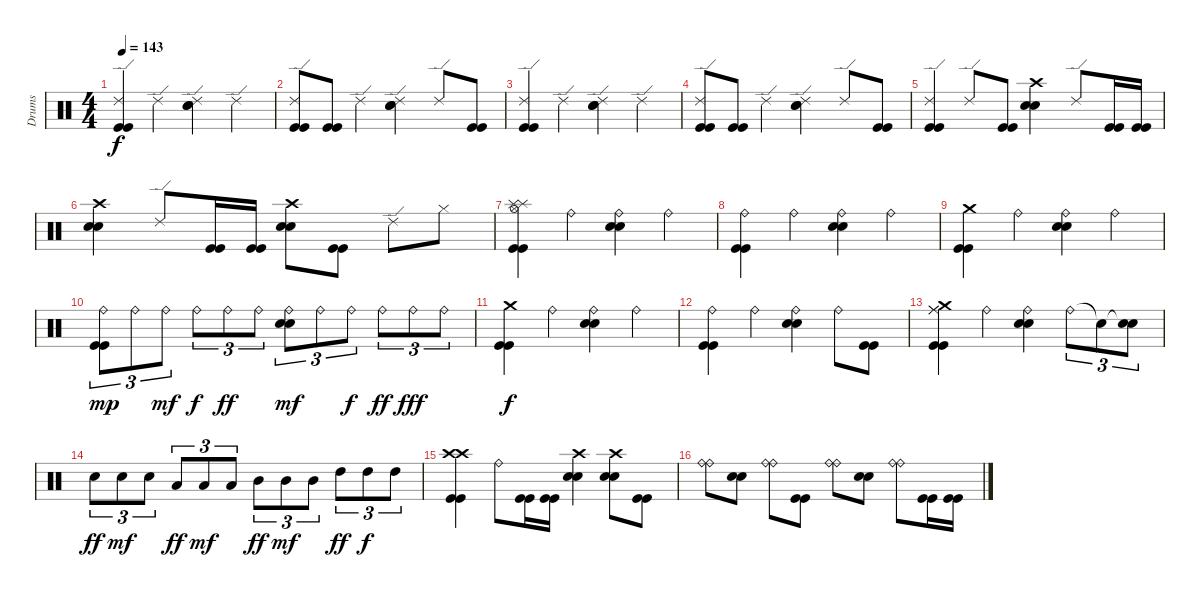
\track ("Drums" "Drums") {instrument percussion}
\staff {score}
\articulation defaults
\ts (4 4)
\tempo 143
\clef neutral
\ks c
("Ride (edge) 2" "Kick (hit)" "Kick (hit)").4{dy f} "Ride (edge) 2".4 ("Ride (edge) 2" "Electric Snare (hit)" "Electric Snare (hit)").4 "Ride (edge) 2".4 |
("Ride (edge) 2" "Kick (hit)" "Kick (hit)").8 ("Kick (hit)" "Kick (hit)").8 "Ride (edge) 2".4 ("Ride (edge) 2" "Electric Snare (hit)" "Electric Snare (hit)").4 "Ride (edge) 2".8 ("Kick (hit)" "Kick (hit)").8 |
("Ride (edge) 2" "Kick (hit)" "Kick (hit)").4 "Ride (edge) 2".4 ("Ride (edge) 2" "Electric Snare (hit)" "Electric Snare (hit)").4 "Ride (edge) 2".4 |
("Ride (edge) 2" "Kick (hit)" "Kick (hit)").8 ("Kick (hit)" "Kick (hit)").8 "Ride (edge) 2".4 ("Ride (edge) 2" "Electric Snare (hit)" "Electric Snare (hit)").4 "Ride (edge) 2".8 ("Kick (hit)" "Kick (hit)").8 |
("Ride (edge) 2" "Kick (hit)" "Kick (hit)").4 "Ride (edge) 2".8 ("Kick (hit)" "Kick (hit)").8 ("Crash high (hit)" "Electric Snare (hit)" "Electric Snare (hit)").4 "Ride (edge) 2".8 ("Kick (hit)" "Kick (hit)").16 ("Kick (hit)" "Kick (hit)").16 |
("Crash high (hit)" "Electric Snare (hit)" "Electric Snare (hit)").4 "Ride (edge) 2".8 ("Kick (hit)" "Kick (hit)").16 ("Kick (hit)" "Kick (hit)").16 ("Crash high (hit)" "Electric Snare (hit)" "Electric Snare (hit)").8 ("Kick (hit)" "Kick (hit)").8 "Ride (edge) 2".8 "Hi-Hat (closed)".8 |
("Splash (hit)" "Splash (hit)" "Hi-Hat (open)" "Kick (hit)" "Kick (hit)").4 "Ride (bell)".4 ("Ride (bell)" "Electric Snare (hit)" "Electric Snare (hit)").4 "Ride (bell)".4 |
("Ride (bell)" "Kick (hit)" "Kick (hit)").4 "Ride (bell)".4 ("Ride (bell)" "Electric Snare (hit)" "Electric Snare (hit)").4 "Ride (bell)".4 |
("Crash medium (hit)" "Kick (hit)" "Kick (hit)").4 "Ride (bell)".4 ("Ride (bell)" "Electric Snare (hit)" "Electric Snare (hit)").4 "Ride (bell)".4 |
("Ride (bell)" "Kick (hit)" "Kick (hit)").8{tu (3 2) dy mp} "Ride (bell)".8{tu (3 2)} "Ride (bell)".8{tu (3 2) dy mf} "Ride (bell)".8{tu (3 2) dy f} "Ride (bell)".8{tu (3 2) dy ff} "Ride (bell)".8{tu (3 2)} ("Ride (bell)" "Electric Snare (hit)" "Electric Snare (hit)").8{tu (3 2) dy mf} "Ride (bell)".8{tu (3 2)} "Ride (bell)".8{tu (3 2) dy f} "Ride (bell)".8{tu (3 2) dy ff} "Ride (bell)".8{tu (3 2) dy fff} "Ride (bell)".8{tu (3 2)} |
("Crash medium (hit)" "Kick (hit)" "Kick (hit)").4{dy f} "Ride (bell)".4 ("Ride (bell)" "Electric Snare (hit)" "Electric Snare (hit)").4 "Ride (bell)".4 |
("Ride (bell)" "Kick (hit)" "Kick (hit)").4 "Ride (bell)".4 ("Ride (bell)" "Electric Snare (hit)" "Electric Snare (hit)").4 "Ride (bell)".8 ("Kick (hit)" "Kick (hit)").8 |
("Crash medium (hit)" "Ride (middle)" "Ride (middle)" "Kick (hit)" "Kick (hit)").4 "Ride (bell)".4 ("Ride (bell)" "Electric Snare (hit)" "Electric Snare (hit)").4 "Ride (bell)".8{tu (3 2)} "Snare (hit)"{t}.8{tu (3 2)} ("Snare (hit)"{t} "Electric Snare (hit)").8{tu (3 2)} |
"Electric Snare (hit)".8{tu (3 2) dy ff} "Electric Snare (hit)".8{tu (3 2) dy mf} "Electric Snare (hit)".8{tu (3 2)} "Low Tom (hit)".8{tu (3 2) dy ff} "Low Tom (hit)".8{tu (3 2) dy mf} "Low Tom (hit)".8{tu (3 2)} "Mid Tom (hit)".8{tu (3 2) dy ff} "Mid Tom (hit)".8{tu (3 2) dy mf} "Mid Tom (hit)".8{tu (3 2)} "High Tom (hit)".8{tu (3 2) dy ff} "High Tom (hit)".8{tu (3 2) dy f} "High Tom (hit)".8{tu (3 2)} |
("Crash high (hit)" "Crash high (hit)" "Kick (hit)" "Kick (hit)").4 "Ride (bell)".8 ("Kick (hit)" "Kick (hit)").16 ("Kick (hit)" "Kick (hit)").16 ("Crash high (hit)" "Electric Snare (hit)" "Electric Snare (hit)").4 ("Crash high (hit)" "Electric Snare (hit)" "Electric Snare (hit)").8 ("Kick (hit)" "Kick (hit)").8 |
("Ride (bell)" "Ride (bell)").8 ("Electric Snare (hit)" "Electric Snare (hit)").8 ("Ride (bell)" "Ride (bell)").8 ("Kick (hit)" "Kick (hit)").8 ("Ride (bell)" "Ride (bell)").8 ("Electric Snare (hit)" "Electric Snare (hit)").8 ("Ride (bell)" "Ride (bell)").8 ("Kick (hit)" "Kick (hit)").16 ("Kick (hit)" "Kick (hit)").16
